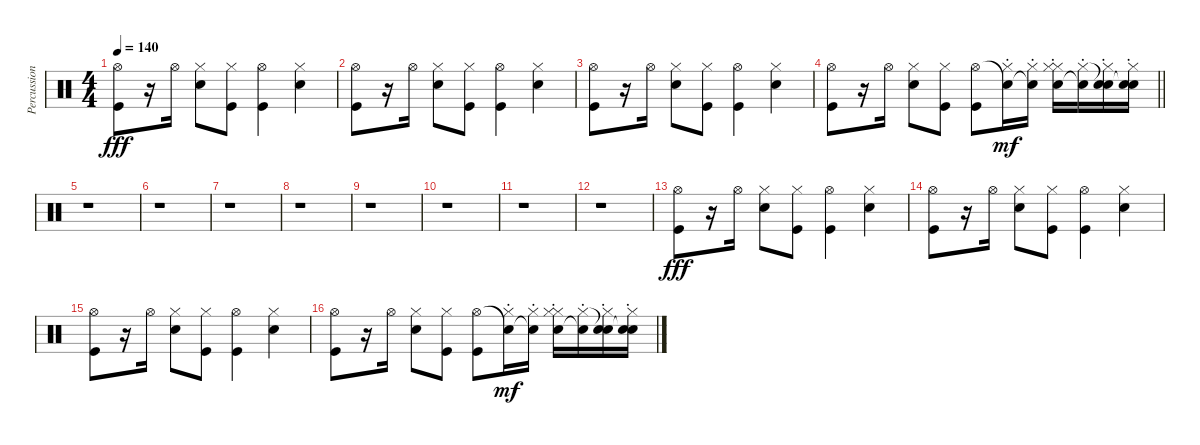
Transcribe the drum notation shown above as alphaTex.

\track ("Percussion" "Percussion") {instrument percussion}
\staff {score}
\articulation defaults
\ts (4 4)
\tempo 140
\clef neutral
\ks c
("Hi-Hat (open)" "Kick (hit)").8{dy fff volume 15} r.16 "Hi-Hat (open)".16 ("Snare (hit) 2" "Hi-Hat (closed)").8 ("Hi-Hat (closed)" "Kick (hit)").8 ("Hi-Hat (open)" "Kick (hit)").4 ("Snare (hit) 2" "Hi-Hat (closed)").4 |
("Hi-Hat (open)" "Kick (hit)").8 r.16 "Hi-Hat (open)".16 ("Snare (hit) 2" "Hi-Hat (closed)").8 ("Hi-Hat (closed)" "Kick (hit)").8 ("Hi-Hat (open)" "Kick (hit)").4 ("Snare (hit) 2" "Hi-Hat (closed)").4 |
("Hi-Hat (open)" "Kick (hit)").8 r.16 "Hi-Hat (open)".16 ("Snare (hit) 2" "Hi-Hat (closed)").8 ("Hi-Hat (closed)" "Kick (hit)").8 ("Hi-Hat (open)" "Kick (hit)").4 ("Snare (hit) 2" "Hi-Hat (closed)").4 |
\barLineRight lightlight
("Hi-Hat (open)" "Kick (hit)").8 r.16 "Hi-Hat (open)".16 ("Snare (hit) 2" "Hi-Hat (closed)").8 ("Hi-Hat (closed)" "Kick (hit)").8 ("Hi-Hat (open)" "Kick (hit)").8 ("Snare (hit)"{t} "Hi-Hat (closed)"{st}).16{dy mf} ("Snare (hit)"{t} "Hi-Hat (closed)"{st}).16 ("Snare (hit) 2" "Hi-Hat (closed)" "Hi-Hat (closed)"{st}).16 ("Snare (hit)"{t} "Hi-Hat (closed)"{st}).16 ("Snare (hit) 2" "Snare (hit)"{t} "Hi-Hat (closed)"{st}).16 ("Snare (hit) 2" "Snare (hit)"{t} "Hi-Hat (closed)"{st}).16 |
\section ("" "")
r.1 |
r.1 |
r.1 |
r.1 |
r.1 |
r.1 |
r.1 |
r.1 |
("Hi-Hat (open)" "Kick (hit)").8{dy fff volume 15} r.16 "Hi-Hat (open)".16 ("Snare (hit) 2" "Hi-Hat (closed)").8 ("Hi-Hat (closed)" "Kick (hit)").8 ("Hi-Hat (open)" "Kick (hit)").4 ("Snare (hit) 2" "Hi-Hat (closed)").4 |
("Hi-Hat (open)" "Kick (hit)").8 r.16 "Hi-Hat (open)".16 ("Snare (hit) 2" "Hi-Hat (closed)").8 ("Hi-Hat (closed)" "Kick (hit)").8 ("Hi-Hat (open)" "Kick (hit)").4 ("Snare (hit) 2" "Hi-Hat (closed)").4 |
("Hi-Hat (open)" "Kick (hit)").8 r.16 "Hi-Hat (open)".16 ("Snare (hit) 2" "Hi-Hat (closed)").8 ("Hi-Hat (closed)" "Kick (hit)").8 ("Hi-Hat (open)" "Kick (hit)").4 ("Snare (hit) 2" "Hi-Hat (closed)").4 |
("Hi-Hat (open)" "Kick (hit)").8 r.16 "Hi-Hat (open)".16 ("Snare (hit) 2" "Hi-Hat (closed)").8 ("Hi-Hat (closed)" "Kick (hit)").8 ("Hi-Hat (open)" "Kick (hit)").8 ("Snare (hit)"{t} "Hi-Hat (closed)"{st}).16{dy mf} ("Snare (hit)"{t} "Hi-Hat (closed)"{st}).16 ("Snare (hit) 2" "Hi-Hat (closed)" "Hi-Hat (closed)"{st}).16 ("Snare (hit)"{t} "Hi-Hat (closed)"{st}).16 ("Snare (hit) 2" "Snare (hit)"{t} "Hi-Hat (closed)"{st}).16 ("Snare (hit) 2" "Snare (hit)"{t} "Hi-Hat (closed)"{st}).16
